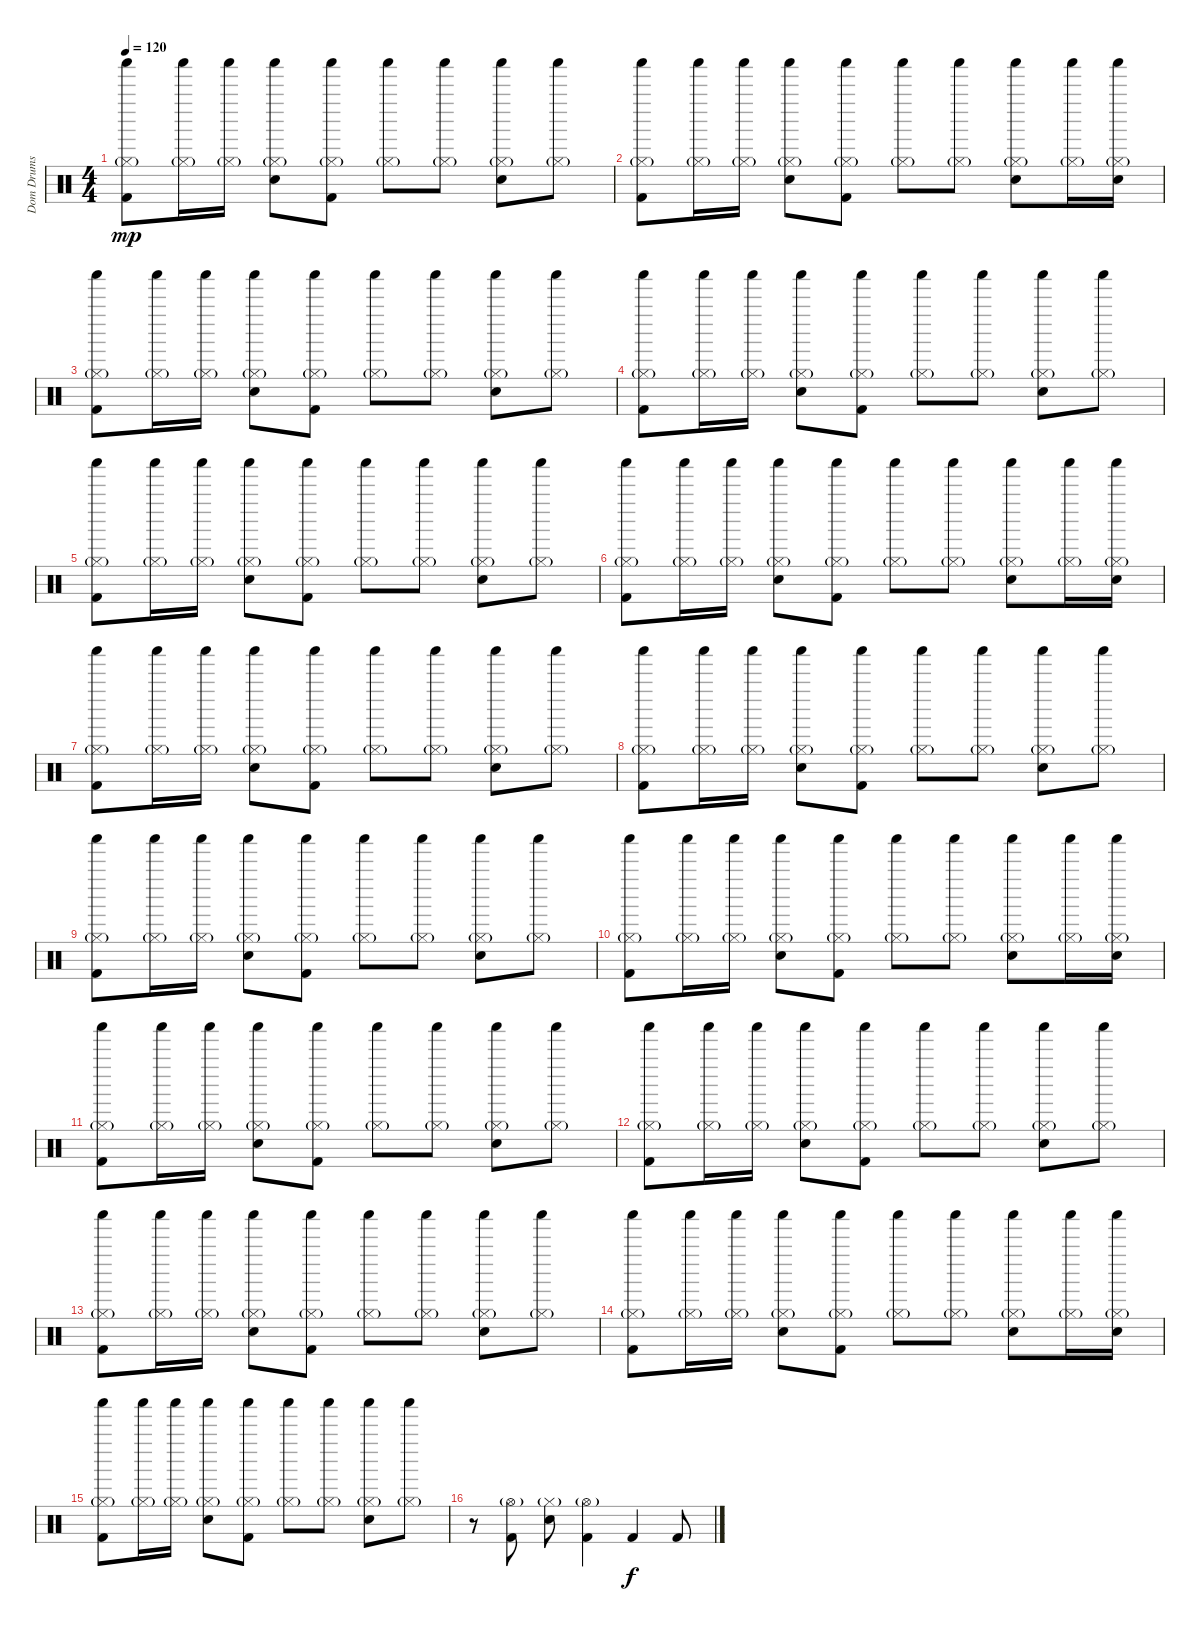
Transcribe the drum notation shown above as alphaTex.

\track ("Dom Drums" "Dom Drums") {instrument percussion}
\staff {score}
\articulation defaults
\ts (4 4)
\tempo 120
\clef neutral
\ks c
("Shaker (hit)" "Hi-Hat (closed)"{g} "Kick (hit) 2").8{dy mp} ("Shaker (hit)" "Hi-Hat (closed)"{g}).16 ("Shaker (hit)" "Hi-Hat (closed)"{g}).16 ("Shaker (hit)" "Hi-Hat (closed)"{g} "Electric Snare (hit)").8 ("Shaker (hit)" "Hi-Hat (closed)"{g} "Kick (hit) 2").8 ("Shaker (hit)" "Hi-Hat (closed)"{g}).8 ("Shaker (hit)" "Hi-Hat (closed)"{g}).8 ("Shaker (hit)" "Hi-Hat (closed)"{g} "Electric Snare (hit)").8 ("Shaker (hit)" "Hi-Hat (closed)"{g}).8 |
("Shaker (hit)" "Hi-Hat (closed)"{g} "Kick (hit) 2").8 ("Shaker (hit)" "Hi-Hat (closed)"{g}).16 ("Shaker (hit)" "Hi-Hat (closed)"{g}).16 ("Shaker (hit)" "Hi-Hat (closed)"{g} "Electric Snare (hit)").8 ("Shaker (hit)" "Hi-Hat (closed)"{g} "Kick (hit) 2").8 ("Shaker (hit)" "Hi-Hat (closed)"{g}).8 ("Shaker (hit)" "Hi-Hat (closed)"{g}).8 ("Shaker (hit)" "Hi-Hat (closed)"{g} "Electric Snare (hit)").8 ("Shaker (hit)" "Hi-Hat (closed)"{g}).16 ("Shaker (hit)" "Hi-Hat (closed)"{g} "Electric Snare (hit)").16 |
("Shaker (hit)" "Hi-Hat (closed)"{g} "Kick (hit) 2").8 ("Shaker (hit)" "Hi-Hat (closed)"{g}).16 ("Shaker (hit)" "Hi-Hat (closed)"{g}).16 ("Shaker (hit)" "Hi-Hat (closed)"{g} "Electric Snare (hit)").8 ("Shaker (hit)" "Hi-Hat (closed)"{g} "Kick (hit) 2").8 ("Shaker (hit)" "Hi-Hat (closed)"{g}).8 ("Shaker (hit)" "Hi-Hat (closed)"{g}).8 ("Shaker (hit)" "Hi-Hat (closed)"{g} "Electric Snare (hit)").8 ("Shaker (hit)" "Hi-Hat (closed)"{g}).8 |
("Shaker (hit)" "Hi-Hat (closed)"{g} "Kick (hit) 2").8 ("Shaker (hit)" "Hi-Hat (closed)"{g}).16 ("Shaker (hit)" "Hi-Hat (closed)"{g}).16 ("Shaker (hit)" "Hi-Hat (closed)"{g} "Electric Snare (hit)").8 ("Shaker (hit)" "Hi-Hat (closed)"{g} "Kick (hit) 2").8 ("Shaker (hit)" "Hi-Hat (closed)"{g}).8 ("Shaker (hit)" "Hi-Hat (closed)"{g}).8 ("Shaker (hit)" "Hi-Hat (closed)"{g} "Electric Snare (hit)").8 ("Shaker (hit)" "Hi-Hat (closed)"{g}).8 |
("Shaker (hit)" "Hi-Hat (closed)"{g} "Kick (hit) 2").8 ("Shaker (hit)" "Hi-Hat (closed)"{g}).16 ("Shaker (hit)" "Hi-Hat (closed)"{g}).16 ("Shaker (hit)" "Hi-Hat (closed)"{g} "Electric Snare (hit)").8 ("Shaker (hit)" "Hi-Hat (closed)"{g} "Kick (hit) 2").8 ("Shaker (hit)" "Hi-Hat (closed)"{g}).8 ("Shaker (hit)" "Hi-Hat (closed)"{g}).8 ("Shaker (hit)" "Hi-Hat (closed)"{g} "Electric Snare (hit)").8 ("Shaker (hit)" "Hi-Hat (closed)"{g}).8 |
("Shaker (hit)" "Hi-Hat (closed)"{g} "Kick (hit) 2").8 ("Shaker (hit)" "Hi-Hat (closed)"{g}).16 ("Shaker (hit)" "Hi-Hat (closed)"{g}).16 ("Shaker (hit)" "Hi-Hat (closed)"{g} "Electric Snare (hit)").8 ("Shaker (hit)" "Hi-Hat (closed)"{g} "Kick (hit) 2").8 ("Shaker (hit)" "Hi-Hat (closed)"{g}).8 ("Shaker (hit)" "Hi-Hat (closed)"{g}).8 ("Shaker (hit)" "Hi-Hat (closed)"{g} "Electric Snare (hit)").8 ("Shaker (hit)" "Hi-Hat (closed)"{g}).16 ("Shaker (hit)" "Hi-Hat (closed)"{g} "Electric Snare (hit)").16 |
("Shaker (hit)" "Hi-Hat (closed)"{g} "Kick (hit) 2").8 ("Shaker (hit)" "Hi-Hat (closed)"{g}).16 ("Shaker (hit)" "Hi-Hat (closed)"{g}).16 ("Shaker (hit)" "Hi-Hat (closed)"{g} "Electric Snare (hit)").8 ("Shaker (hit)" "Hi-Hat (closed)"{g} "Kick (hit) 2").8 ("Shaker (hit)" "Hi-Hat (closed)"{g}).8 ("Shaker (hit)" "Hi-Hat (closed)"{g}).8 ("Shaker (hit)" "Hi-Hat (closed)"{g} "Electric Snare (hit)").8 ("Shaker (hit)" "Hi-Hat (closed)"{g}).8 |
("Shaker (hit)" "Hi-Hat (closed)"{g} "Kick (hit) 2").8 ("Shaker (hit)" "Hi-Hat (closed)"{g}).16 ("Shaker (hit)" "Hi-Hat (closed)"{g}).16 ("Shaker (hit)" "Hi-Hat (closed)"{g} "Electric Snare (hit)").8 ("Shaker (hit)" "Hi-Hat (closed)"{g} "Kick (hit) 2").8 ("Shaker (hit)" "Hi-Hat (closed)"{g}).8 ("Shaker (hit)" "Hi-Hat (closed)"{g}).8 ("Shaker (hit)" "Hi-Hat (closed)"{g} "Electric Snare (hit)").8 ("Shaker (hit)" "Hi-Hat (closed)"{g}).8 |
("Shaker (hit)" "Hi-Hat (closed)"{g} "Kick (hit) 2").8 ("Shaker (hit)" "Hi-Hat (closed)"{g}).16 ("Shaker (hit)" "Hi-Hat (closed)"{g}).16 ("Shaker (hit)" "Hi-Hat (closed)"{g} "Electric Snare (hit)").8 ("Shaker (hit)" "Hi-Hat (closed)"{g} "Kick (hit) 2").8 ("Shaker (hit)" "Hi-Hat (closed)"{g}).8 ("Shaker (hit)" "Hi-Hat (closed)"{g}).8 ("Shaker (hit)" "Hi-Hat (closed)"{g} "Electric Snare (hit)").8 ("Shaker (hit)" "Hi-Hat (closed)"{g}).8 |
("Shaker (hit)" "Hi-Hat (closed)"{g} "Kick (hit) 2").8 ("Shaker (hit)" "Hi-Hat (closed)"{g}).16 ("Shaker (hit)" "Hi-Hat (closed)"{g}).16 ("Shaker (hit)" "Hi-Hat (closed)"{g} "Electric Snare (hit)").8 ("Shaker (hit)" "Hi-Hat (closed)"{g} "Kick (hit) 2").8 ("Shaker (hit)" "Hi-Hat (closed)"{g}).8 ("Shaker (hit)" "Hi-Hat (closed)"{g}).8 ("Shaker (hit)" "Hi-Hat (closed)"{g} "Electric Snare (hit)").8 ("Shaker (hit)" "Hi-Hat (closed)"{g}).16 ("Shaker (hit)" "Hi-Hat (closed)"{g} "Electric Snare (hit)").16 |
("Shaker (hit)" "Hi-Hat (closed)"{g} "Kick (hit) 2").8 ("Shaker (hit)" "Hi-Hat (closed)"{g}).16 ("Shaker (hit)" "Hi-Hat (closed)"{g}).16 ("Shaker (hit)" "Hi-Hat (closed)"{g} "Electric Snare (hit)").8 ("Shaker (hit)" "Hi-Hat (closed)"{g} "Kick (hit) 2").8 ("Shaker (hit)" "Hi-Hat (closed)"{g}).8 ("Shaker (hit)" "Hi-Hat (closed)"{g}).8 ("Shaker (hit)" "Hi-Hat (closed)"{g} "Electric Snare (hit)").8 ("Shaker (hit)" "Hi-Hat (closed)"{g}).8 |
("Shaker (hit)" "Hi-Hat (closed)"{g} "Kick (hit) 2").8 ("Shaker (hit)" "Hi-Hat (closed)"{g}).16 ("Shaker (hit)" "Hi-Hat (closed)"{g}).16 ("Shaker (hit)" "Hi-Hat (closed)"{g} "Electric Snare (hit)").8 ("Shaker (hit)" "Hi-Hat (closed)"{g} "Kick (hit) 2").8 ("Shaker (hit)" "Hi-Hat (closed)"{g}).8 ("Shaker (hit)" "Hi-Hat (closed)"{g}).8 ("Shaker (hit)" "Hi-Hat (closed)"{g} "Electric Snare (hit)").8 ("Shaker (hit)" "Hi-Hat (closed)"{g}).8 |
("Shaker (hit)" "Hi-Hat (closed)"{g} "Kick (hit) 2").8 ("Shaker (hit)" "Hi-Hat (closed)"{g}).16 ("Shaker (hit)" "Hi-Hat (closed)"{g}).16 ("Shaker (hit)" "Hi-Hat (closed)"{g} "Electric Snare (hit)").8 ("Shaker (hit)" "Hi-Hat (closed)"{g} "Kick (hit) 2").8 ("Shaker (hit)" "Hi-Hat (closed)"{g}).8 ("Shaker (hit)" "Hi-Hat (closed)"{g}).8 ("Shaker (hit)" "Hi-Hat (closed)"{g} "Electric Snare (hit)").8 ("Shaker (hit)" "Hi-Hat (closed)"{g}).8 |
("Shaker (hit)" "Hi-Hat (closed)"{g} "Kick (hit) 2").8 ("Shaker (hit)" "Hi-Hat (closed)"{g}).16 ("Shaker (hit)" "Hi-Hat (closed)"{g}).16 ("Shaker (hit)" "Hi-Hat (closed)"{g} "Electric Snare (hit)").8 ("Shaker (hit)" "Hi-Hat (closed)"{g} "Kick (hit) 2").8 ("Shaker (hit)" "Hi-Hat (closed)"{g}).8 ("Shaker (hit)" "Hi-Hat (closed)"{g}).8 ("Shaker (hit)" "Hi-Hat (closed)"{g} "Electric Snare (hit)").8 ("Shaker (hit)" "Hi-Hat (closed)"{g}).16 ("Shaker (hit)" "Hi-Hat (closed)"{g} "Electric Snare (hit)").16 |
("Shaker (hit)" "Hi-Hat (closed)"{g} "Kick (hit) 2").8 ("Shaker (hit)" "Hi-Hat (closed)"{g}).16 ("Shaker (hit)" "Hi-Hat (closed)"{g}).16 ("Shaker (hit)" "Hi-Hat (closed)"{g} "Electric Snare (hit)").8 ("Shaker (hit)" "Hi-Hat (closed)"{g} "Kick (hit) 2").8 ("Shaker (hit)" "Hi-Hat (closed)"{g}).8 ("Shaker (hit)" "Hi-Hat (closed)"{g}).8 ("Shaker (hit)" "Hi-Hat (closed)"{g} "Electric Snare (hit)").8 ("Shaker (hit)" "Hi-Hat (closed)"{g}).8 |
r.8 ("Hi-Hat (open)"{g} "Kick (hit) 2").8 ("Hi-Hat (closed)"{g} "Electric Snare (hit)").8 ("Hi-Hat (open)"{g} "Kick (hit) 2").4 "Kick (hit) 2".4{dy f} "Kick (hit) 2".8
